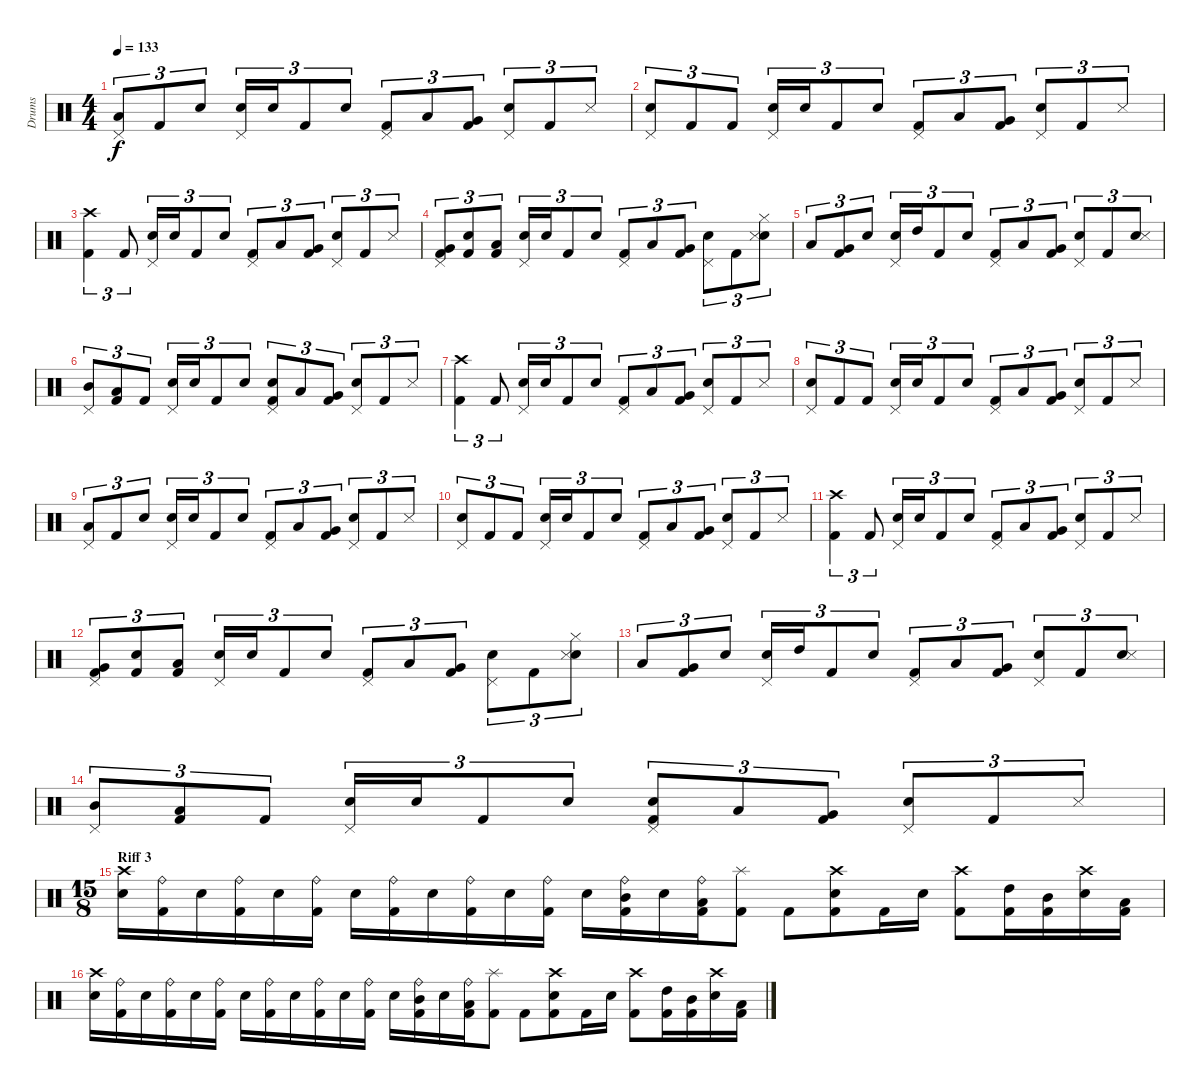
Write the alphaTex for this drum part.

\track ("Drums" "Drums") {instrument percussion}
\staff {score}
\articulation defaults
\ts (4 4)
\tempo 133
\clef neutral
\ks c
("Low Tom (hit)" "Pedal Hi-Hat (hit)").8{tu (3 2) dy f} "Kick (hit) 2".8{tu (3 2)} "Snare (hit) 2".8{tu (3 2)} ("Snare (hit) 2" "Pedal Hi-Hat (hit)").16{tu (3 2)} "Snare (hit) 2".16{tu (3 2)} "Kick (hit) 2".8{tu (3 2)} "Snare (hit) 2".8{tu (3 2)} ("Kick (hit) 2" "Pedal Hi-Hat (hit)").8{tu (3 2)} "Low Tom (hit)".8{tu (3 2)} ("Kick (hit) 2" "Very Low Tom (hit)").8{tu (3 2)} ("Snare (hit) 2" "Pedal Hi-Hat (hit)").8{tu (3 2)} "Kick (hit) 2".8{tu (3 2)} "Snare (side stick) 3".8{tu (3 2)} |
("Snare (hit) 2" "Pedal Hi-Hat (hit)").8{tu (3 2)} "Kick (hit) 2".8{tu (3 2)} "Kick (hit) 2".8{tu (3 2)} ("Snare (hit) 2" "Pedal Hi-Hat (hit)").16{tu (3 2)} "Snare (hit) 2".16{tu (3 2)} "Kick (hit) 2".8{tu (3 2)} "Snare (hit) 2".8{tu (3 2)} ("Kick (hit) 2" "Pedal Hi-Hat (hit)").8{tu (3 2)} "Low Tom (hit)".8{tu (3 2)} ("Kick (hit) 2" "Very Low Tom (hit)").8{tu (3 2)} ("Snare (hit) 2" "Pedal Hi-Hat (hit)").8{tu (3 2)} "Kick (hit) 2".8{tu (3 2)} "Snare (side stick) 3".8{tu (3 2)} |
("Kick (hit) 2" "Crash high (hit)").4{tu (3 2)} "Kick (hit) 2".8{tu (3 2)} ("Snare (hit) 2" "Pedal Hi-Hat (hit)").16{tu (3 2)} "Snare (hit) 2".16{tu (3 2)} "Kick (hit) 2".8{tu (3 2)} "Snare (hit) 2".8{tu (3 2)} ("Kick (hit) 2" "Pedal Hi-Hat (hit)").8{tu (3 2)} "Low Tom (hit)".8{tu (3 2)} ("Kick (hit) 2" "Very Low Tom (hit)").8{tu (3 2)} ("Snare (hit) 2" "Pedal Hi-Hat (hit)").8{tu (3 2)} "Kick (hit) 2".8{tu (3 2)} "Snare (side stick) 3".8{tu (3 2)} |
("Kick (hit) 2" "Very Low Tom (hit)" "Pedal Hi-Hat (hit)").8{tu (3 2)} ("Kick (hit) 2" "Snare (hit) 2").8{tu (3 2)} ("Kick (hit) 2" "Low Tom (hit)").8{tu (3 2)} ("Snare (hit) 2" "Pedal Hi-Hat (hit)").16{tu (3 2)} "Snare (hit) 2".16{tu (3 2)} "Kick (hit) 2".8{tu (3 2)} "Snare (hit) 2".8{tu (3 2)} ("Kick (hit) 2" "Pedal Hi-Hat (hit)").8{tu (3 2)} "Low Tom (hit)".8{tu (3 2)} ("Kick (hit) 2" "Very Low Tom (hit)").8{tu (3 2)} ("Snare (hit) 2" "Pedal Hi-Hat (hit)").8{tu (3 2)} "Kick (hit) 2".8{tu (3 2)} ("Snare (hit) 2" "Snare (side stick) 3" "Hi-Hat (closed)").8{tu (3 2)} |
"Low Tom (hit)".8{tu (3 2)} ("Kick (hit) 2" "Very Low Tom (hit)").8{tu (3 2)} "Snare (hit) 2".8{tu (3 2)} ("Snare (hit) 2" "Pedal Hi-Hat (hit)").16{tu (3 2)} "High Tom (hit)".16{tu (3 2)} "Kick (hit) 2".8{tu (3 2)} "Snare (hit) 2".8{tu (3 2)} ("Kick (hit) 2" "Pedal Hi-Hat (hit)").8{tu (3 2)} "Low Tom (hit)".8{tu (3 2)} ("Kick (hit) 2" "Very Low Tom (hit)").8{tu (3 2)} ("Snare (hit) 2" "Pedal Hi-Hat (hit)").8{tu (3 2)} "Kick (hit) 2".8{tu (3 2)} ("Snare (hit) 2" "Snare (side stick) 3").8{tu (3 2)} |
("Mid Tom (hit)" "Pedal Hi-Hat (hit)").8{tu (3 2)} ("Kick (hit) 2" "Low Tom (hit)").8{tu (3 2)} "Kick (hit) 2".8{tu (3 2)} ("Snare (hit) 2" "Pedal Hi-Hat (hit)").16{tu (3 2)} "Snare (hit) 2".16{tu (3 2)} "Kick (hit) 2".8{tu (3 2)} "Snare (hit) 2".8{tu (3 2)} ("Kick (hit) 2" "Snare (hit) 2" "Pedal Hi-Hat (hit)").8{tu (3 2)} "Low Tom (hit)".8{tu (3 2)} ("Kick (hit) 2" "Very Low Tom (hit)").8{tu (3 2)} ("Snare (hit) 2" "Pedal Hi-Hat (hit)").8{tu (3 2)} "Kick (hit) 2".8{tu (3 2)} "Snare (side stick) 3".8{tu (3 2)} |
("Kick (hit) 2" "Crash high (hit)").4{tu (3 2)} "Kick (hit) 2".8{tu (3 2)} ("Snare (hit) 2" "Pedal Hi-Hat (hit)").16{tu (3 2)} "Snare (hit) 2".16{tu (3 2)} "Kick (hit) 2".8{tu (3 2)} "Snare (hit) 2".8{tu (3 2)} ("Kick (hit) 2" "Pedal Hi-Hat (hit)").8{tu (3 2)} "Low Tom (hit)".8{tu (3 2)} ("Kick (hit) 2" "Very Low Tom (hit)").8{tu (3 2)} ("Snare (hit) 2" "Pedal Hi-Hat (hit)").8{tu (3 2)} "Kick (hit) 2".8{tu (3 2)} "Snare (side stick) 3".8{tu (3 2)} |
("Snare (hit) 2" "Pedal Hi-Hat (hit)").8{tu (3 2)} "Kick (hit) 2".8{tu (3 2)} "Kick (hit) 2".8{tu (3 2)} ("Snare (hit) 2" "Pedal Hi-Hat (hit)").16{tu (3 2)} "Snare (hit) 2".16{tu (3 2)} "Kick (hit) 2".8{tu (3 2)} "Snare (hit) 2".8{tu (3 2)} ("Kick (hit) 2" "Pedal Hi-Hat (hit)").8{tu (3 2)} "Low Tom (hit)".8{tu (3 2)} ("Kick (hit) 2" "Very Low Tom (hit)").8{tu (3 2)} ("Snare (hit) 2" "Pedal Hi-Hat (hit)").8{tu (3 2)} "Kick (hit) 2".8{tu (3 2)} "Snare (side stick) 3".8{tu (3 2)} |
("Low Tom (hit)" "Pedal Hi-Hat (hit)").8{tu (3 2)} "Kick (hit) 2".8{tu (3 2)} "Snare (hit) 2".8{tu (3 2)} ("Snare (hit) 2" "Pedal Hi-Hat (hit)").16{tu (3 2)} "Snare (hit) 2".16{tu (3 2)} "Kick (hit) 2".8{tu (3 2)} "Snare (hit) 2".8{tu (3 2)} ("Kick (hit) 2" "Pedal Hi-Hat (hit)").8{tu (3 2)} "Low Tom (hit)".8{tu (3 2)} ("Kick (hit) 2" "Very Low Tom (hit)").8{tu (3 2)} ("Snare (hit) 2" "Pedal Hi-Hat (hit)").8{tu (3 2)} "Kick (hit) 2".8{tu (3 2)} "Snare (side stick) 3".8{tu (3 2)} |
("Snare (hit) 2" "Pedal Hi-Hat (hit)").8{tu (3 2)} "Kick (hit) 2".8{tu (3 2)} "Kick (hit) 2".8{tu (3 2)} ("Snare (hit) 2" "Pedal Hi-Hat (hit)").16{tu (3 2)} "Snare (hit) 2".16{tu (3 2)} "Kick (hit) 2".8{tu (3 2)} "Snare (hit) 2".8{tu (3 2)} ("Kick (hit) 2" "Pedal Hi-Hat (hit)").8{tu (3 2)} "Low Tom (hit)".8{tu (3 2)} ("Kick (hit) 2" "Very Low Tom (hit)").8{tu (3 2)} ("Snare (hit) 2" "Pedal Hi-Hat (hit)").8{tu (3 2)} "Kick (hit) 2".8{tu (3 2)} "Snare (side stick) 3".8{tu (3 2)} |
("Kick (hit) 2" "Crash high (hit)").4{tu (3 2)} "Kick (hit) 2".8{tu (3 2)} ("Snare (hit) 2" "Pedal Hi-Hat (hit)").16{tu (3 2)} "Snare (hit) 2".16{tu (3 2)} "Kick (hit) 2".8{tu (3 2)} "Snare (hit) 2".8{tu (3 2)} ("Kick (hit) 2" "Pedal Hi-Hat (hit)").8{tu (3 2)} "Low Tom (hit)".8{tu (3 2)} ("Kick (hit) 2" "Very Low Tom (hit)").8{tu (3 2)} ("Snare (hit) 2" "Pedal Hi-Hat (hit)").8{tu (3 2)} "Kick (hit) 2".8{tu (3 2)} "Snare (side stick) 3".8{tu (3 2)} |
("Kick (hit) 2" "Very Low Tom (hit)" "Pedal Hi-Hat (hit)").8{tu (3 2)} ("Kick (hit) 2" "Snare (hit) 2").8{tu (3 2)} ("Kick (hit) 2" "Low Tom (hit)").8{tu (3 2)} ("Snare (hit) 2" "Pedal Hi-Hat (hit)").16{tu (3 2)} "Snare (hit) 2".16{tu (3 2)} "Kick (hit) 2".8{tu (3 2)} "Snare (hit) 2".8{tu (3 2)} ("Kick (hit) 2" "Pedal Hi-Hat (hit)").8{tu (3 2)} "Low Tom (hit)".8{tu (3 2)} ("Kick (hit) 2" "Very Low Tom (hit)").8{tu (3 2)} ("Snare (hit) 2" "Pedal Hi-Hat (hit)").8{tu (3 2)} "Kick (hit) 2".8{tu (3 2)} ("Snare (hit) 2" "Snare (side stick) 3" "Hi-Hat (closed)").8{tu (3 2)} |
"Low Tom (hit)".8{tu (3 2)} ("Kick (hit) 2" "Very Low Tom (hit)").8{tu (3 2)} "Snare (hit) 2".8{tu (3 2)} ("Snare (hit) 2" "Pedal Hi-Hat (hit)").16{tu (3 2)} "High Tom (hit)".16{tu (3 2)} "Kick (hit) 2".8{tu (3 2)} "Snare (hit) 2".8{tu (3 2)} ("Kick (hit) 2" "Pedal Hi-Hat (hit)").8{tu (3 2)} "Low Tom (hit)".8{tu (3 2)} ("Kick (hit) 2" "Very Low Tom (hit)").8{tu (3 2)} ("Snare (hit) 2" "Pedal Hi-Hat (hit)").8{tu (3 2)} "Kick (hit) 2".8{tu (3 2)} ("Snare (hit) 2" "Snare (side stick) 3").8{tu (3 2)} |
("Mid Tom (hit)" "Pedal Hi-Hat (hit)").8{tu (3 2)} ("Kick (hit) 2" "Low Tom (hit)").8{tu (3 2)} "Kick (hit) 2".8{tu (3 2)} ("Snare (hit) 2" "Pedal Hi-Hat (hit)").16{tu (3 2)} "Snare (hit) 2".16{tu (3 2)} "Kick (hit) 2".8{tu (3 2)} "Snare (hit) 2".8{tu (3 2)} ("Kick (hit) 2" "Snare (hit) 2" "Pedal Hi-Hat (hit)").8{tu (3 2)} "Low Tom (hit)".8{tu (3 2)} ("Kick (hit) 2" "Very Low Tom (hit)").8{tu (3 2)} ("Snare (hit) 2" "Pedal Hi-Hat (hit)").8{tu (3 2)} "Kick (hit) 2".8{tu (3 2)} "Snare (side stick) 3".8{tu (3 2)} |
\ts (15 8)
\section ("" "Riff 3")
("Snare (hit) 2" "Crash high (hit)").16 ("Kick (hit) 2" "Ride (bell)").16 "Snare (hit) 2".16 ("Kick (hit) 2" "Ride (bell)").16 "Snare (hit) 2".16 ("Kick (hit) 2" "Ride (bell)").16 "Snare (hit) 2".16 ("Kick (hit) 2" "Ride (bell)").16 "Snare (hit) 2".16 ("Kick (hit) 2" "Ride (bell)").16 "Snare (hit) 2".16 ("Kick (hit) 2" "Ride (bell)").16 "Snare (hit) 2".16 ("Kick (hit) 2" "Mid Tom (hit)" "Ride (bell)").16 "Snare (hit) 2".16 ("Kick (hit) 2" "Low Tom (hit)" "Ride (bell)").16 ("Kick (hit) 2" "Splash (hit)").8 "Kick (hit) 2".8 ("Kick (hit) 2" "Snare (hit) 2" "Crash high (hit)").8 "Kick (hit) 2".16 "Snare (hit) 2".16 ("Kick (hit) 2" "Crash high (hit)").8 ("Kick (hit) 2" "High Tom (hit)").16 ("Kick (hit) 2" "Mid Tom (hit)").16 ("Snare (hit) 2" "Crash high (hit)").16 ("Kick (hit) 2" "Low Tom (hit)").16 |
("Snare (hit) 2" "Crash high (hit)").16 ("Kick (hit) 2" "Ride (bell)").16 "Snare (hit) 2".16 ("Kick (hit) 2" "Ride (bell)").16 "Snare (hit) 2".16 ("Kick (hit) 2" "Ride (bell)").16 "Snare (hit) 2".16 ("Kick (hit) 2" "Ride (bell)").16 "Snare (hit) 2".16 ("Kick (hit) 2" "Ride (bell)").16 "Snare (hit) 2".16 ("Kick (hit) 2" "Ride (bell)").16 "Snare (hit) 2".16 ("Kick (hit) 2" "Mid Tom (hit)" "Ride (bell)").16 "Snare (hit) 2".16 ("Kick (hit) 2" "Low Tom (hit)" "Ride (bell)").16 ("Kick (hit) 2" "Splash (hit)").8 "Kick (hit) 2".8 ("Kick (hit) 2" "Snare (hit) 2" "Crash high (hit)").8 "Kick (hit) 2".16 "Snare (hit) 2".16 ("Kick (hit) 2" "Crash high (hit)").8 ("Kick (hit) 2" "High Tom (hit)").16 ("Kick (hit) 2" "Mid Tom (hit)").16 ("Snare (hit) 2" "Crash high (hit)").16 ("Kick (hit) 2" "Low Tom (hit)").16
